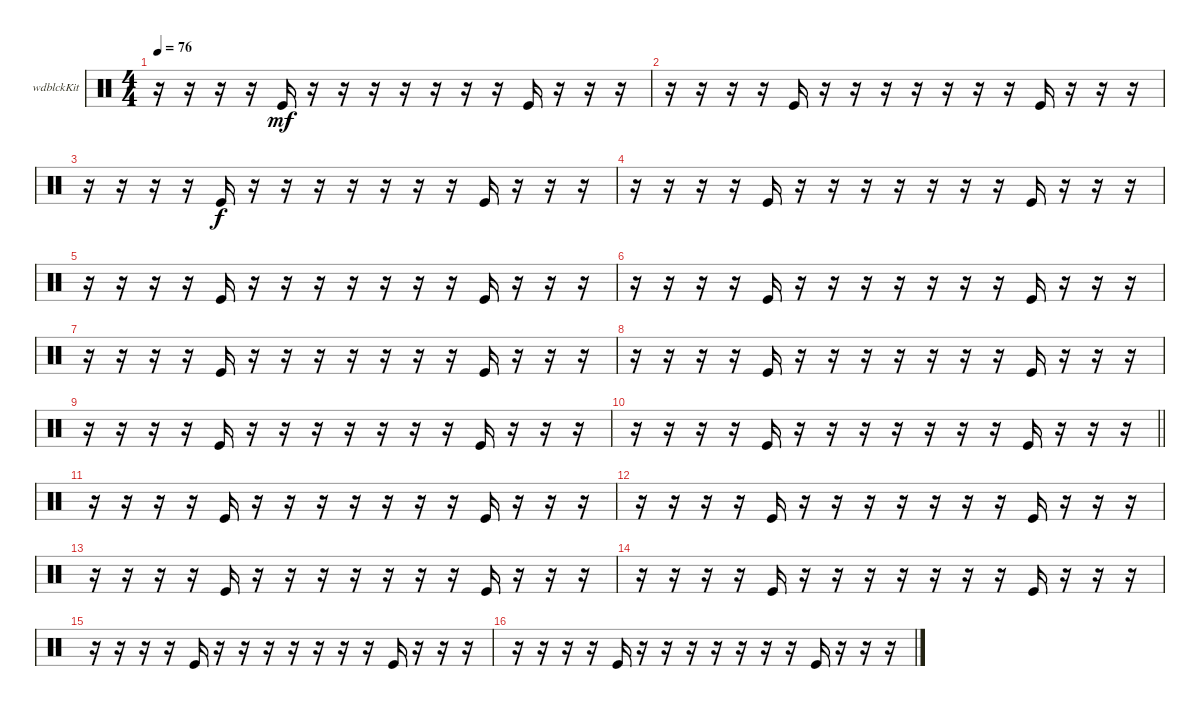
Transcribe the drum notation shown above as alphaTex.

\bracketExtendMode groupsimilarinstruments
\firstSystemTrackNameOrientation horizontal
\otherSystemsTrackNameOrientation horizontal
\track ("Woodblock" "wdblckKit") {instrument percussion}
\staff {score}
\articulation defaults
\ts (4 4)
\tempo 76
\clef neutral
\ks c
r.16{dy mf} r.16 r.16 r.16 "Kick (hit)".16 r.16 r.16 r.16 r.16 r.16 r.16 r.16 "Kick (hit)".16 r.16 r.16 r.16 |
r.16 r.16 r.16 r.16 "Kick (hit)".16 r.16 r.16 r.16 r.16 r.16 r.16 r.16 "Kick (hit)".16 r.16 r.16 r.16 |
r.16 r.16 r.16 r.16 "Kick (hit)".16{dy f} r.16 r.16 r.16 r.16 r.16 r.16 r.16 "Kick (hit)".16 r.16 r.16 r.16 |
r.16 r.16 r.16 r.16 "Kick (hit)".16 r.16 r.16 r.16 r.16 r.16 r.16 r.16 "Kick (hit)".16 r.16 r.16 r.16 |
r.16 r.16 r.16 r.16 "Kick (hit)".16 r.16 r.16 r.16 r.16 r.16 r.16 r.16 "Kick (hit)".16 r.16 r.16 r.16 |
r.16 r.16 r.16 r.16 "Kick (hit)".16 r.16 r.16 r.16 r.16 r.16 r.16 r.16 "Kick (hit)".16 r.16 r.16 r.16 |
r.16 r.16 r.16 r.16 "Kick (hit)".16 r.16 r.16 r.16 r.16 r.16 r.16 r.16 "Kick (hit)".16 r.16 r.16 r.16 |
r.16 r.16 r.16 r.16 "Kick (hit)".16 r.16 r.16 r.16 r.16 r.16 r.16 r.16 "Kick (hit)".16 r.16 r.16 r.16 |
r.16 r.16 r.16 r.16 "Kick (hit)".16 r.16 r.16 r.16 r.16 r.16 r.16 r.16 "Kick (hit)".16 r.16 r.16 r.16 |
\barLineRight lightlight
r.16 r.16 r.16 r.16 "Kick (hit)".16 r.16 r.16 r.16 r.16 r.16 r.16 r.16 "Kick (hit)".16 r.16 r.16 r.16 |
r.16 r.16 r.16 r.16 "Kick (hit)".16 r.16 r.16 r.16 r.16 r.16 r.16 r.16 "Kick (hit)".16 r.16 r.16 r.16 |
r.16 r.16 r.16 r.16 "Kick (hit)".16 r.16 r.16 r.16 r.16 r.16 r.16 r.16 "Kick (hit)".16 r.16 r.16 r.16 |
r.16 r.16 r.16 r.16 "Kick (hit)".16 r.16 r.16 r.16 r.16 r.16 r.16 r.16 "Kick (hit)".16 r.16 r.16 r.16 |
r.16 r.16 r.16 r.16 "Kick (hit)".16 r.16 r.16 r.16 r.16 r.16 r.16 r.16 "Kick (hit)".16 r.16 r.16 r.16 |
r.16 r.16 r.16 r.16 "Kick (hit)".16 r.16 r.16 r.16 r.16 r.16 r.16 r.16 "Kick (hit)".16 r.16 r.16 r.16 |
r.16 r.16 r.16 r.16 "Kick (hit)".16 r.16 r.16 r.16 r.16 r.16 r.16 r.16 "Kick (hit)".16 r.16 r.16 r.16
